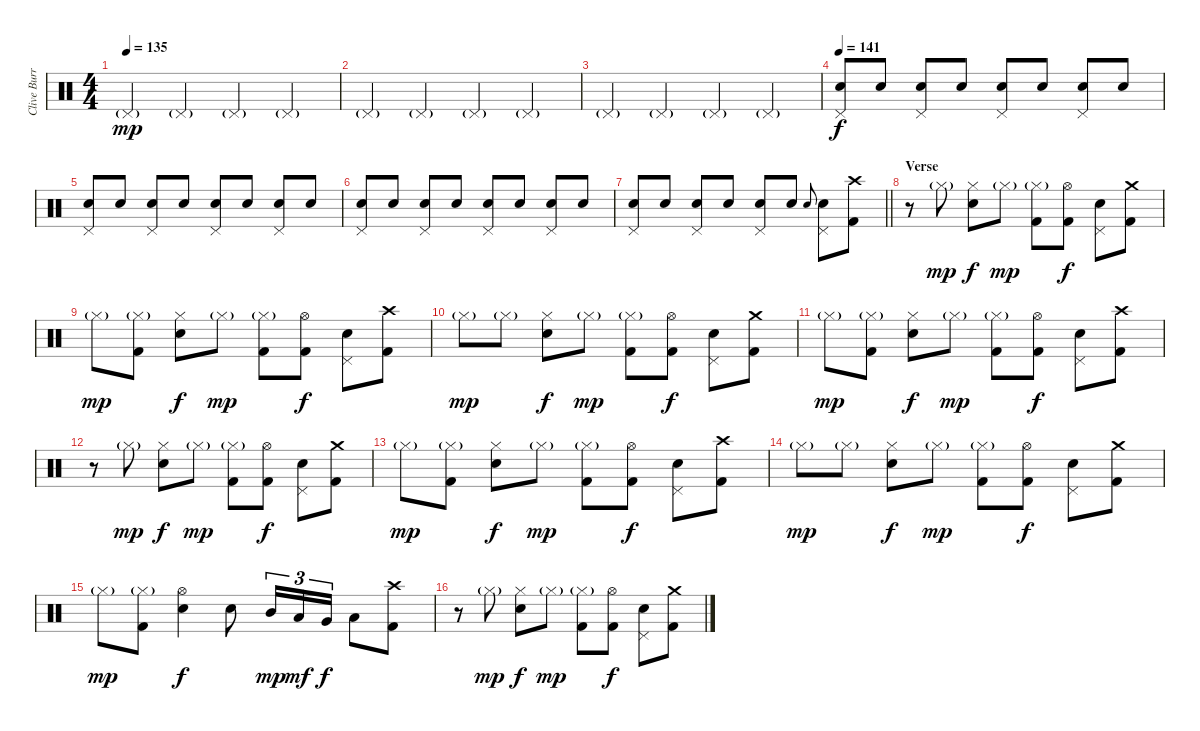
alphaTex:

\track ("Clive Burr" "Clive Burr") {instrument percussion}
\staff {score}
\articulation defaults
\ts (4 4)
\tempo 135
\clef neutral
\ks c "Pedal Hi-Hat (hit)"{g}.4{dy mp} "Pedal Hi-Hat (hit)"{g}.4 "Pedal Hi-Hat (hit)"{g}.4 "Pedal Hi-Hat (hit)"{g}.4
|
"Pedal Hi-Hat (hit)"{g}.4 "Pedal Hi-Hat (hit)"{g}.4 "Pedal Hi-Hat (hit)"{g}.4 "Pedal Hi-Hat (hit)"{g}.4 |
"Pedal Hi-Hat (hit)"{g}.4 "Pedal Hi-Hat (hit)"{g}.4 "Pedal Hi-Hat (hit)"{g}.4 "Pedal Hi-Hat (hit)"{g}.4{volume 4} |
\tempo 141
("Pedal Hi-Hat (hit)" "Snare (hit) 2").8{dy f volume 14} "Snare (hit) 2".8 ("Pedal Hi-Hat (hit)" "Snare (hit) 2").8 "Snare (hit) 2".8 ("Pedal Hi-Hat (hit)" "Snare (hit) 2").8 "Snare (hit) 2".8 ("Pedal Hi-Hat (hit)" "Snare (hit) 2").8 "Snare (hit) 2".8 |
("Pedal Hi-Hat (hit)" "Snare (hit) 2").8 "Snare (hit) 2".8 ("Pedal Hi-Hat (hit)" "Snare (hit) 2").8 "Snare (hit) 2".8 ("Pedal Hi-Hat (hit)" "Snare (hit) 2").8 "Snare (hit) 2".8 ("Pedal Hi-Hat (hit)" "Snare (hit) 2").8 "Snare (hit) 2".8 |
("Pedal Hi-Hat (hit)" "Snare (hit) 2").8 "Snare (hit) 2".8 ("Pedal Hi-Hat (hit)" "Snare (hit) 2").8 "Snare (hit) 2".8 ("Pedal Hi-Hat (hit)" "Snare (hit) 2").8 "Snare (hit) 2".8 ("Pedal Hi-Hat (hit)" "Snare (hit) 2").8 "Snare (hit) 2".8 |
\barLineRight lightlight
("Pedal Hi-Hat (hit)" "Snare (hit) 2").8 "Snare (hit) 2".8 ("Pedal Hi-Hat (hit)" "Snare (hit) 2").8 "Snare (hit) 2".8 ("Pedal Hi-Hat (hit)" "Snare (hit) 2").8 "Snare (hit) 2".8 "Snare (hit) 2".8{gr onbeat} ("Pedal Hi-Hat (hit)" "Snare (hit) 2").8 ("Crash high (hit)" "Kick (hit) 2").8 |
\section ("" "Verse")
r.8 "Hi-Hat (closed)"{g}.8{dy mp} ("Hi-Hat (closed)" "Snare (hit) 2").8{dy f} "Hi-Hat (closed)"{g}.8{dy mp} ("Hi-Hat (closed)"{g} "Kick (hit) 2").8 ("Hi-Hat (open)" "Kick (hit) 2").8{dy f} ("Pedal Hi-Hat (hit)" "Snare (hit) 2").8 ("Crash medium (hit)" "Kick (hit) 2").8 |
"Hi-Hat (closed)"{g}.8{dy mp} ("Hi-Hat (closed)"{g} "Kick (hit) 2").8 ("Hi-Hat (closed)" "Snare (hit) 2").8{dy f} "Hi-Hat (closed)"{g}.8{dy mp} ("Hi-Hat (closed)"{g} "Kick (hit) 2").8 ("Hi-Hat (open)" "Kick (hit) 2").8{dy f} ("Pedal Hi-Hat (hit)" "Snare (hit) 2").8 ("Crash high (hit)" "Kick (hit) 2").8 |
"Hi-Hat (closed)"{g}.8{dy mp} "Hi-Hat (closed)"{g}.8 ("Hi-Hat (closed)" "Snare (hit) 2").8{dy f} "Hi-Hat (closed)"{g}.8{dy mp} ("Hi-Hat (closed)"{g} "Kick (hit) 2").8 ("Hi-Hat (open)" "Kick (hit) 2").8{dy f} ("Pedal Hi-Hat (hit)" "Snare (hit) 2").8 ("Crash medium (hit)" "Kick (hit) 2").8 |
"Hi-Hat (closed)"{g}.8{dy mp} ("Hi-Hat (closed)"{g} "Kick (hit) 2").8 ("Hi-Hat (closed)" "Snare (hit) 2").8{dy f} "Hi-Hat (closed)"{g}.8{dy mp} ("Hi-Hat (closed)"{g} "Kick (hit) 2").8 ("Hi-Hat (open)" "Kick (hit) 2").8{dy f} ("Pedal Hi-Hat (hit)" "Snare (hit) 2").8 ("Crash high (hit)" "Kick (hit) 2").8 |
r.8 "Hi-Hat (closed)"{g}.8{dy mp} ("Hi-Hat (closed)" "Snare (hit) 2").8{dy f} "Hi-Hat (closed)"{g}.8{dy mp} ("Hi-Hat (closed)"{g} "Kick (hit) 2").8 ("Hi-Hat (open)" "Kick (hit) 2").8{dy f} ("Pedal Hi-Hat (hit)" "Snare (hit) 2").8 ("Crash medium (hit)" "Kick (hit) 2").8 |
"Hi-Hat (closed)"{g}.8{dy mp} ("Hi-Hat (closed)"{g} "Kick (hit) 2").8 ("Hi-Hat (closed)" "Snare (hit) 2").8{dy f} "Hi-Hat (closed)"{g}.8{dy mp} ("Hi-Hat (closed)"{g} "Kick (hit) 2").8 ("Hi-Hat (open)" "Kick (hit) 2").8{dy f} ("Pedal Hi-Hat (hit)" "Snare (hit) 2").8 ("Crash high (hit)" "Kick (hit) 2").8 |
"Hi-Hat (closed)"{g}.8{dy mp} "Hi-Hat (closed)"{g}.8 ("Hi-Hat (closed)" "Snare (hit) 2").8{dy f} "Hi-Hat (closed)"{g}.8{dy mp} ("Hi-Hat (closed)"{g} "Kick (hit) 2").8 ("Hi-Hat (open)" "Kick (hit) 2").8{dy f} ("Pedal Hi-Hat (hit)" "Snare (hit) 2").8 ("Crash medium (hit)" "Kick (hit) 2").8 |
"Hi-Hat (closed)"{g}.8{dy mp} ("Hi-Hat (closed)"{g} "Kick (hit) 2").8 ("Hi-Hat (open)" "Snare (hit) 2").4{dy f} "Snare (hit) 2".8 "Mid Tom (hit)".16{tu (3 2) dy mp} "Low Tom (hit)".16{tu (3 2) dy mf} "Very Low Tom (hit)".16{tu (3 2) dy f} "Low Floor Tom (hit)".8 ("Crash high (hit)" "Kick (hit) 2").8 |
r.8 "Hi-Hat (closed)"{g}.8{dy mp} ("Hi-Hat (closed)" "Snare (hit) 2").8{dy f} "Hi-Hat (closed)"{g}.8{dy mp} ("Hi-Hat (closed)"{g} "Kick (hit) 2").8 ("Hi-Hat (open)" "Kick (hit) 2").8{dy f} ("Pedal Hi-Hat (hit)" "Snare (hit) 2").8 ("Crash medium (hit)" "Kick (hit) 2").8
